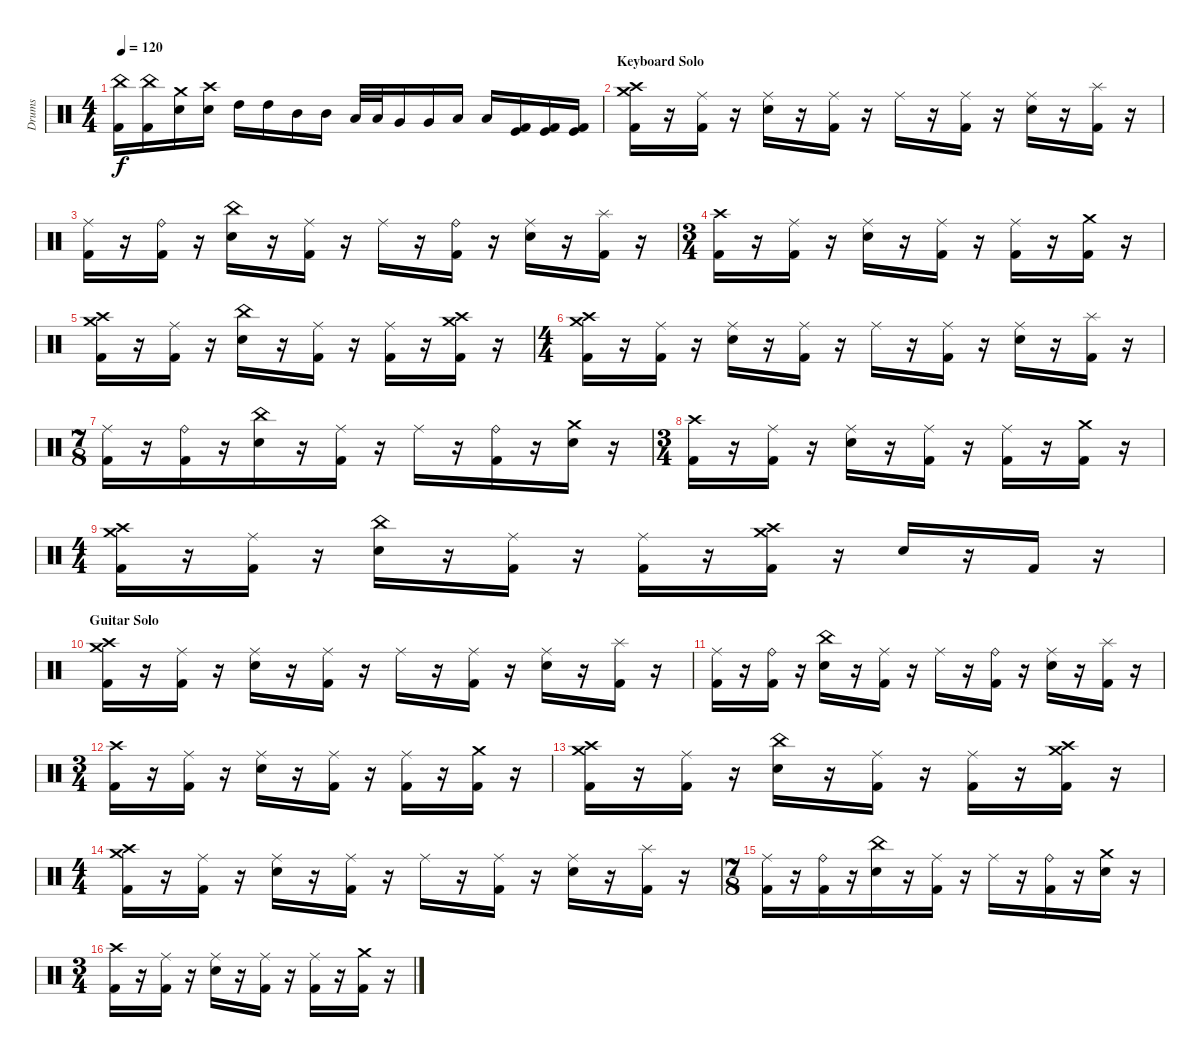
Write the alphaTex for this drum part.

\track ("Drums" "Drums") {instrument percussion}
\staff {score}
\articulation defaults
\ts (4 4)
\tempo 120
\clef neutral
\ks c
("China (hit)" "Kick (hit) 2").16{dy f} ("China (hit)" "Kick (hit) 2").16 ("Crash medium (hit)" "Electric Snare (hit)").16 ("Crash high (hit)" "Electric Snare (hit)").16 "High Tom (hit)".16 "High Tom (hit)".16 "Mid Tom (hit)".16 "Mid Tom (hit)".16 "Low Tom (hit)".32 "Low Tom (hit)".32 "Very Low Tom (hit)".16 "Very Low Tom (hit)".16 "Low Floor Tom (hit)".16 "Low Floor Tom (hit)".16 ("Kick (hit)" "Kick (hit) 2").16 ("Kick (hit)" "Kick (hit) 2").16 ("Kick (hit)" "Kick (hit) 2").16 |
\section ("" "Keyboard Solo")
("Crash high (hit)" "Crash medium (hit)" "Kick (hit) 2").16 r.16 ("Ride (middle)" "Kick (hit) 2").16 r.16 ("Ride (middle)" "Electric Snare (hit)").16 r.16 ("Ride (middle)" "Kick (hit) 2").16 r.16 "Ride (middle)".16 r.16 ("Ride (middle)" "Kick (hit) 2").16 r.16 ("Ride (middle)" "Electric Snare (hit)").16 r.16 ("Splash (hit)" "Kick (hit) 2").16 r.16 |
("Ride (middle)" "Kick (hit) 2").16 r.16 ("Ride (bell)" "Kick (hit) 2").16 r.16 ("China (hit)" "Electric Snare (hit)").16 r.16 ("Ride (middle)" "Kick (hit) 2").16 r.16 "Ride (middle)".16 r.16 ("Ride (bell)" "Kick (hit) 2").16 r.16 ("Ride (middle)" "Electric Snare (hit)").16 r.16 ("Splash (hit)" "Kick (hit) 2").16 r.16 |
\ts (3 4)
("Crash high (hit)" "Kick (hit) 2").16 r.16 ("Ride (middle)" "Kick (hit) 2").16 r.16 ("Ride (middle)" "Electric Snare (hit)").16 r.16 ("Ride (middle)" "Kick (hit) 2").16 r.16 ("Ride (middle)" "Kick (hit) 2").16 r.16 ("Crash medium (hit)" "Kick (hit) 2").16 r.16 |
("Crash high (hit)" "Crash medium (hit)" "Kick (hit) 2").16 r.16 ("Ride (middle)" "Kick (hit) 2").16 r.16 ("China (hit)" "Electric Snare (hit)").16 r.16 ("Ride (middle)" "Kick (hit) 2").16 r.16 ("Ride (middle)" "Kick (hit) 2").16 r.16 ("Crash medium (hit)" "Crash high (hit)" "Kick (hit) 2").16 r.16 |
\ts (4 4)
("Crash high (hit)" "Crash medium (hit)" "Kick (hit) 2").16 r.16 ("Ride (middle)" "Kick (hit) 2").16 r.16 ("Ride (middle)" "Electric Snare (hit)").16 r.16 ("Ride (middle)" "Kick (hit) 2").16 r.16 "Ride (middle)".16 r.16 ("Ride (middle)" "Kick (hit) 2").16 r.16 ("Ride (middle)" "Electric Snare (hit)").16 r.16 ("Splash (hit)" "Kick (hit) 2").16 r.16 |
\ts (7 8)
("Ride (middle)" "Kick (hit) 2").16 r.16 ("Ride (bell)" "Kick (hit) 2").16 r.16 ("China (hit)" "Electric Snare (hit)").16 r.16 ("Ride (middle)" "Kick (hit) 2").16 r.16 "Ride (middle)".16 r.16 ("Ride (bell)" "Kick (hit) 2").16 r.16 ("Crash medium (hit)" "Electric Snare (hit)").16 r.16 |
\ts (3 4)
("Crash high (hit)" "Kick (hit) 2").16 r.16 ("Ride (middle)" "Kick (hit) 2").16 r.16 ("Ride (middle)" "Electric Snare (hit)").16 r.16 ("Ride (middle)" "Kick (hit) 2").16 r.16 ("Ride (middle)" "Kick (hit) 2").16 r.16 ("Crash medium (hit)" "Kick (hit) 2").16 r.16 |
\ts (4 4)
("Crash high (hit)" "Crash medium (hit)" "Kick (hit) 2").16 r.16 ("Ride (middle)" "Kick (hit) 2").16 r.16 ("China (hit)" "Electric Snare (hit)").16 r.16 ("Ride (middle)" "Kick (hit) 2").16 r.16 ("Ride (middle)" "Kick (hit) 2").16 r.16 ("Crash medium (hit)" "Crash high (hit)" "Kick (hit) 2").16 r.16 "Electric Snare (hit)".16 r.16 "Kick (hit) 2".16 r.16 |
\section ("" "Guitar Solo")
("Crash high (hit)" "Crash medium (hit)" "Kick (hit) 2").16 r.16 ("Ride (middle)" "Kick (hit) 2").16 r.16 ("Ride (middle)" "Electric Snare (hit)").16 r.16 ("Ride (middle)" "Kick (hit) 2").16 r.16 "Ride (middle)".16 r.16 ("Ride (middle)" "Kick (hit) 2").16 r.16 ("Ride (middle)" "Electric Snare (hit)").16 r.16 ("Splash (hit)" "Kick (hit) 2").16 r.16 |
("Ride (middle)" "Kick (hit) 2").16 r.16 ("Ride (bell)" "Kick (hit) 2").16 r.16 ("China (hit)" "Electric Snare (hit)").16 r.16 ("Ride (middle)" "Kick (hit) 2").16 r.16 "Ride (middle)".16 r.16 ("Ride (bell)" "Kick (hit) 2").16 r.16 ("Ride (middle)" "Electric Snare (hit)").16 r.16 ("Splash (hit)" "Kick (hit) 2").16 r.16 |
\ts (3 4)
("Crash high (hit)" "Kick (hit) 2").16 r.16 ("Ride (middle)" "Kick (hit) 2").16 r.16 ("Ride (middle)" "Electric Snare (hit)").16 r.16 ("Ride (middle)" "Kick (hit) 2").16 r.16 ("Ride (middle)" "Kick (hit) 2").16 r.16 ("Crash medium (hit)" "Kick (hit) 2").16 r.16 |
("Crash high (hit)" "Crash medium (hit)" "Kick (hit) 2").16 r.16 ("Ride (middle)" "Kick (hit) 2").16 r.16 ("China (hit)" "Electric Snare (hit)").16 r.16 ("Ride (middle)" "Kick (hit) 2").16 r.16 ("Ride (middle)" "Kick (hit) 2").16 r.16 ("Crash medium (hit)" "Crash high (hit)" "Kick (hit) 2").16 r.16 |
\ts (4 4)
("Crash high (hit)" "Crash medium (hit)" "Kick (hit) 2").16 r.16 ("Ride (middle)" "Kick (hit) 2").16 r.16 ("Ride (middle)" "Electric Snare (hit)").16 r.16 ("Ride (middle)" "Kick (hit) 2").16 r.16 "Ride (middle)".16 r.16 ("Ride (middle)" "Kick (hit) 2").16 r.16 ("Ride (middle)" "Electric Snare (hit)").16 r.16 ("Splash (hit)" "Kick (hit) 2").16 r.16 |
\ts (7 8)
("Ride (middle)" "Kick (hit) 2").16 r.16 ("Ride (bell)" "Kick (hit) 2").16 r.16 ("China (hit)" "Electric Snare (hit)").16 r.16 ("Ride (middle)" "Kick (hit) 2").16 r.16 "Ride (middle)".16 r.16 ("Ride (bell)" "Kick (hit) 2").16 r.16 ("Crash medium (hit)" "Electric Snare (hit)").16 r.16 |
\ts (3 4)
("Crash high (hit)" "Kick (hit) 2").16 r.16 ("Ride (middle)" "Kick (hit) 2").16 r.16 ("Ride (middle)" "Electric Snare (hit)").16 r.16 ("Ride (middle)" "Kick (hit) 2").16 r.16 ("Ride (middle)" "Kick (hit) 2").16 r.16 ("Crash medium (hit)" "Kick (hit) 2").16 r.16
